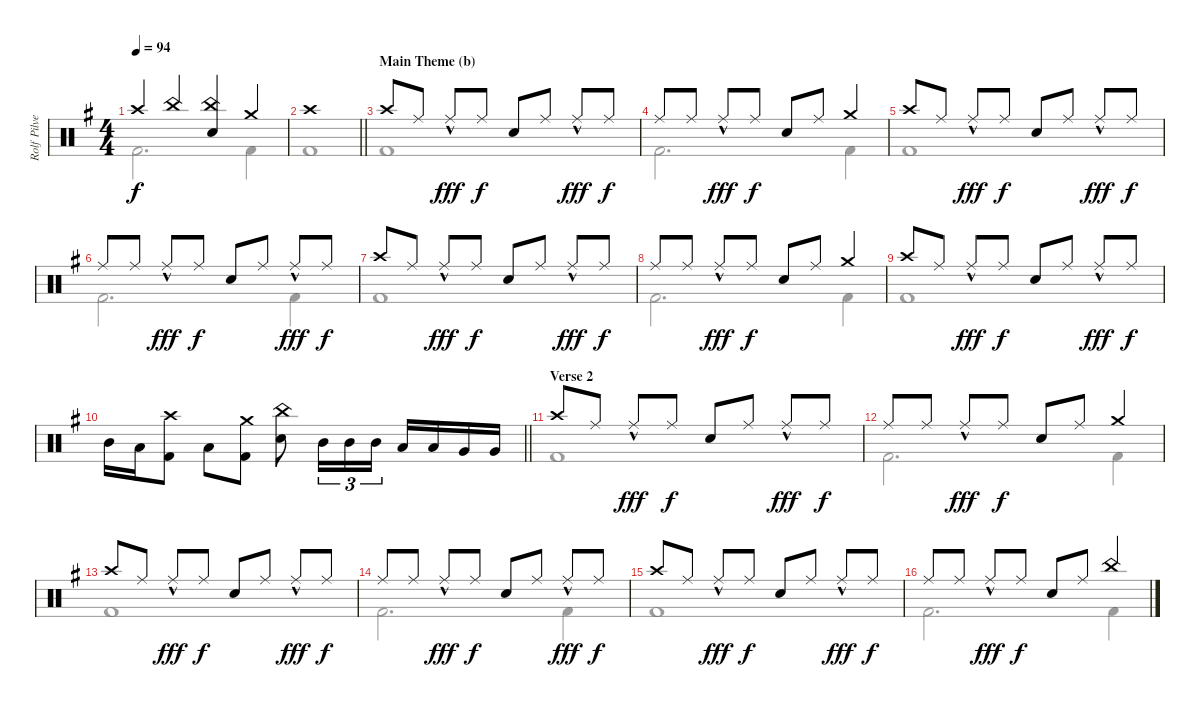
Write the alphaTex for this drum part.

\track ("Rolf Pilve - drums" "Rolf Pilve") {instrument percussion}
\staff {score}
\articulation defaults
\voice
\ts (4 4)
\tempo 94
\clef neutral
\ks eminor "Crash high (hit)".4{dy f} "China (hit)".4
("China (hit)" "Snare (hit) 2").4 "Crash medium (hit)".4 |
\barLineRight lightlight "Crash high (hit)".1
|
\section ("" "Main Theme (b)")
"Crash high (hit)".8 "Ride (middle)".8 "Ride (middle)"{hac}.8{dy fff} "Ride (middle)".8{dy f} "Snare (hit) 2".8 "Ride (middle)".8 "Ride (middle)"{hac}.8{dy fff} "Ride (middle)".8{dy f} |
"Ride (middle)".8 "Ride (middle)".8 "Ride (middle)"{hac}.8{dy fff} "Ride (middle)".8{dy f} "Snare (hit) 2".8 "Ride (middle)".8 "Crash medium (hit)".4 |
"Crash high (hit)".8 "Ride (middle)".8 "Ride (middle)"{hac}.8{dy fff} "Ride (middle)".8{dy f} "Snare (hit) 2".8 "Ride (middle)".8 "Ride (middle)"{hac}.8{dy fff} "Ride (middle)".8{dy f} |
"Ride (middle)".8 "Ride (middle)".8 "Ride (middle)"{hac}.8{dy fff} "Ride (middle)".8{dy f} "Snare (hit) 2".8 "Ride (middle)".8 "Ride (middle)"{hac}.8{dy fff} "Ride (middle)".8{dy f} |
"Crash high (hit)".8 "Ride (middle)".8 "Ride (middle)"{hac}.8{dy fff} "Ride (middle)".8{dy f} "Snare (hit) 2".8 "Ride (middle)".8 "Ride (middle)"{hac}.8{dy fff} "Ride (middle)".8{dy f} |
"Ride (middle)".8 "Ride (middle)".8 "Ride (middle)"{hac}.8{dy fff} "Ride (middle)".8{dy f} "Snare (hit) 2".8 "Ride (middle)".8 "Crash medium (hit)".4 |
"Crash high (hit)".8 "Ride (middle)".8 "Ride (middle)"{hac}.8{dy fff} "Ride (middle)".8{dy f} "Snare (hit) 2".8 "Ride (middle)".8 "Ride (middle)"{hac}.8{dy fff} "Ride (middle)".8{dy f} |
\barLineRight lightlight "Mid Tom (hit)".16 "Low Tom (hit)".16
("Crash high (hit)" "Kick (hit) 2").8 "Low Tom (hit)".8 ("Crash medium (hit)" "Kick (hit) 2").8 ("China (hit)" "Snare (hit) 2").8 "Mid Tom (hit)".16{tu (3 2)} "Mid Tom (hit)".16{tu (3 2)} "Mid Tom (hit)".16{tu (3 2)} "Low Tom (hit)".16 "Low Tom (hit)".16 "Very Low Tom (hit)".16 "Very Low Tom (hit)".16 |
\section ("" "Verse 2")
"Crash high (hit)".8 "Ride (middle)".8 "Ride (middle)"{hac}.8{dy fff} "Ride (middle)".8{dy f} "Snare (hit) 2".8 "Ride (middle)".8 "Ride (middle)"{hac}.8{dy fff} "Ride (middle)".8{dy f} |
"Ride (middle)".8 "Ride (middle)".8 "Ride (middle)"{hac}.8{dy fff} "Ride (middle)".8{dy f} "Snare (hit) 2".8 "Ride (middle)".8 "Crash medium (hit)".4 |
"Crash high (hit)".8 "Ride (middle)".8 "Ride (middle)"{hac}.8{dy fff} "Ride (middle)".8{dy f} "Snare (hit) 2".8 "Ride (middle)".8 "Ride (middle)"{hac}.8{dy fff} "Ride (middle)".8{dy f} |
"Ride (middle)".8 "Ride (middle)".8 "Ride (middle)"{hac}.8{dy fff} "Ride (middle)".8{dy f} "Snare (hit) 2".8 "Ride (middle)".8 "Ride (middle)"{hac}.8{dy fff} "Ride (middle)".8{dy f} |
"Crash high (hit)".8 "Ride (middle)".8 "Ride (middle)"{hac}.8{dy fff} "Ride (middle)".8{dy f} "Snare (hit) 2".8 "Ride (middle)".8 "Ride (middle)"{hac}.8{dy fff} "Ride (middle)".8{dy f} |
"Ride (middle)".8 "Ride (middle)".8 "Ride (middle)"{hac}.8{dy fff} "Ride (middle)".8{dy f} "Snare (hit) 2".8 "Ride (middle)".8 "China (hit)".4
\voice
\clef neutral
\ottava regular
\simile none
\ks eminor "Kick (hit) 2".2{d dy f} "Kick (hit) 2".4
|
\barLineRight lightlight "Kick (hit) 2".1
|
"Kick (hit) 2".1 |
"Kick (hit) 2".2{d} "Kick (hit) 2".4 |
"Kick (hit) 2".1 |
"Kick (hit) 2".2{d} "Kick (hit) 2".4 |
"Kick (hit) 2".1 |
"Kick (hit) 2".2{d} "Kick (hit) 2".4 |
"Kick (hit) 2".1 |
\barLineRight lightlight
|
"Kick (hit) 2".1 |
"Kick (hit) 2".2{d} "Kick (hit) 2".4 |
"Kick (hit) 2".1 |
"Kick (hit) 2".2{d} "Kick (hit) 2".4 |
"Kick (hit) 2".1 |
"Kick (hit) 2".2{d} "Kick (hit) 2".4
